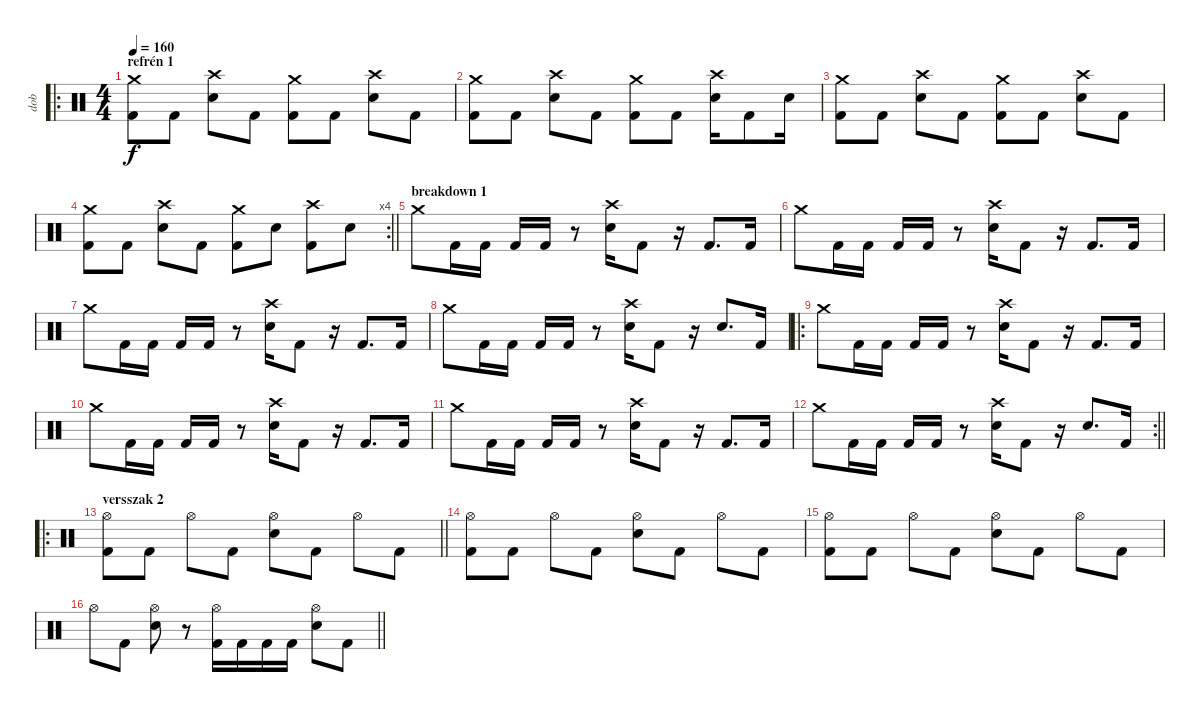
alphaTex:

\track ("dob" "dob") {instrument percussion}
\staff {score}
\articulation defaults
\ro
\ts (4 4)
\section ("" "refrén 1")
\tempo 160
\clef neutral
\ks c
("Crash medium (hit)" "Kick (hit) 2").8{dy f} "Kick (hit) 2".8 ("Crash high (hit)" "Snare (hit) 2").8 "Kick (hit) 2".8 ("Crash medium (hit)" "Kick (hit) 2").8 "Kick (hit) 2".8 ("Crash high (hit)" "Snare (hit) 2").8 "Kick (hit) 2".8 |
("Crash medium (hit)" "Kick (hit) 2").8 "Kick (hit) 2".8 ("Crash high (hit)" "Snare (hit) 2").8 "Kick (hit) 2".8 ("Crash medium (hit)" "Kick (hit) 2").8 "Kick (hit) 2".8 ("Crash high (hit)" "Snare (hit) 2").16 "Kick (hit) 2".8 "Snare (hit) 2".16 |
("Crash medium (hit)" "Kick (hit) 2").8 "Kick (hit) 2".8 ("Crash high (hit)" "Snare (hit) 2").8 "Kick (hit) 2".8 ("Crash medium (hit)" "Kick (hit) 2").8 "Kick (hit) 2".8 ("Crash high (hit)" "Snare (hit) 2").8 "Kick (hit) 2".8 |
\rc 4
\barLineRight lightlight
("Crash medium (hit)" "Kick (hit) 2").8 "Kick (hit) 2".8 ("Crash high (hit)" "Snare (hit) 2").8 "Kick (hit) 2".8 ("Crash medium (hit)" "Kick (hit) 2").8 "Snare (hit) 2".8 ("Crash high (hit)" "Kick (hit) 2").8 "Snare (hit) 2".8 |
\section ("" "breakdown 1")
"Crash medium (hit)".8 "Kick (hit) 2".16 "Kick (hit) 2".16 "Kick (hit) 2".16 "Kick (hit) 2".16 r.8 ("Crash high (hit)" "Snare (hit) 2").16 "Kick (hit) 2".8 r.16 "Kick (hit) 2".8{d} "Kick (hit) 2".16 |
"Crash medium (hit)".8 "Kick (hit) 2".16 "Kick (hit) 2".16 "Kick (hit) 2".16 "Kick (hit) 2".16 r.8 ("Crash high (hit)" "Snare (hit) 2").16 "Kick (hit) 2".8 r.16 "Kick (hit) 2".8{d} "Kick (hit) 2".16 |
"Crash medium (hit)".8 "Kick (hit) 2".16 "Kick (hit) 2".16 "Kick (hit) 2".16 "Kick (hit) 2".16 r.8 ("Crash high (hit)" "Snare (hit) 2").16 "Kick (hit) 2".8 r.16 "Kick (hit) 2".8{d} "Kick (hit) 2".16 |
"Crash medium (hit)".8 "Kick (hit) 2".16 "Kick (hit) 2".16 "Kick (hit) 2".16 "Kick (hit) 2".16 r.8 ("Crash high (hit)" "Snare (hit) 2").16 "Kick (hit) 2".8 r.16 "Snare (hit) 2".8{d} "Kick (hit) 2".16 |
\ro "Crash medium (hit)".8 "Kick (hit) 2".16 "Kick (hit) 2".16 "Kick (hit) 2".16 "Kick (hit) 2".16
r.8 ("Crash high (hit)" "Snare (hit) 2").16 "Kick (hit) 2".8 r.16 "Kick (hit) 2".8{d} "Kick (hit) 2".16 |
"Crash medium (hit)".8 "Kick (hit) 2".16 "Kick (hit) 2".16 "Kick (hit) 2".16 "Kick (hit) 2".16 r.8 ("Crash high (hit)" "Snare (hit) 2").16 "Kick (hit) 2".8 r.16 "Kick (hit) 2".8{d} "Kick (hit) 2".16 |
"Crash medium (hit)".8 "Kick (hit) 2".16 "Kick (hit) 2".16 "Kick (hit) 2".16 "Kick (hit) 2".16 r.8 ("Crash high (hit)" "Snare (hit) 2").16 "Kick (hit) 2".8 r.16 "Kick (hit) 2".8{d} "Kick (hit) 2".16 |
\rc 2
\barLineRight lightlight "Crash medium (hit)".8 "Kick (hit) 2".16 "Kick (hit) 2".16 "Kick (hit) 2".16 "Kick (hit) 2".16
r.8 ("Crash high (hit)" "Snare (hit) 2").16 "Kick (hit) 2".8 r.16 "Snare (hit) 2".8{d} "Kick (hit) 2".16 |
\ro
\section ("" "versszak 2")
\barLineRight lightlight
("Hi-Hat (open)" "Kick (hit) 2").8 "Kick (hit) 2".8 "Hi-Hat (open)".8 "Kick (hit) 2".8 ("Hi-Hat (open)" "Snare (hit) 2").8 "Kick (hit) 2".8 "Hi-Hat (open)".8 "Kick (hit) 2".8 |
("Hi-Hat (open)" "Kick (hit) 2").8 "Kick (hit) 2".8 "Hi-Hat (open)".8 "Kick (hit) 2".8 ("Hi-Hat (open)" "Snare (hit) 2").8 "Kick (hit) 2".8 "Hi-Hat (open)".8 "Kick (hit) 2".8 |
("Hi-Hat (open)" "Kick (hit) 2").8 "Kick (hit) 2".8 "Hi-Hat (open)".8 "Kick (hit) 2".8 ("Hi-Hat (open)" "Snare (hit) 2").8 "Kick (hit) 2".8 "Hi-Hat (open)".8 "Kick (hit) 2".8 |
\barLineRight lightlight "Hi-Hat (open)".8 "Kick (hit) 2".8
("Hi-Hat (open)" "Snare (hit) 2").8 r.8 ("Hi-Hat (open)" "Kick (hit) 2").16 "Kick (hit) 2".16 "Kick (hit) 2".16 "Kick (hit) 2".16 ("Hi-Hat (open)" "Snare (hit) 2").8 "Kick (hit) 2".8
